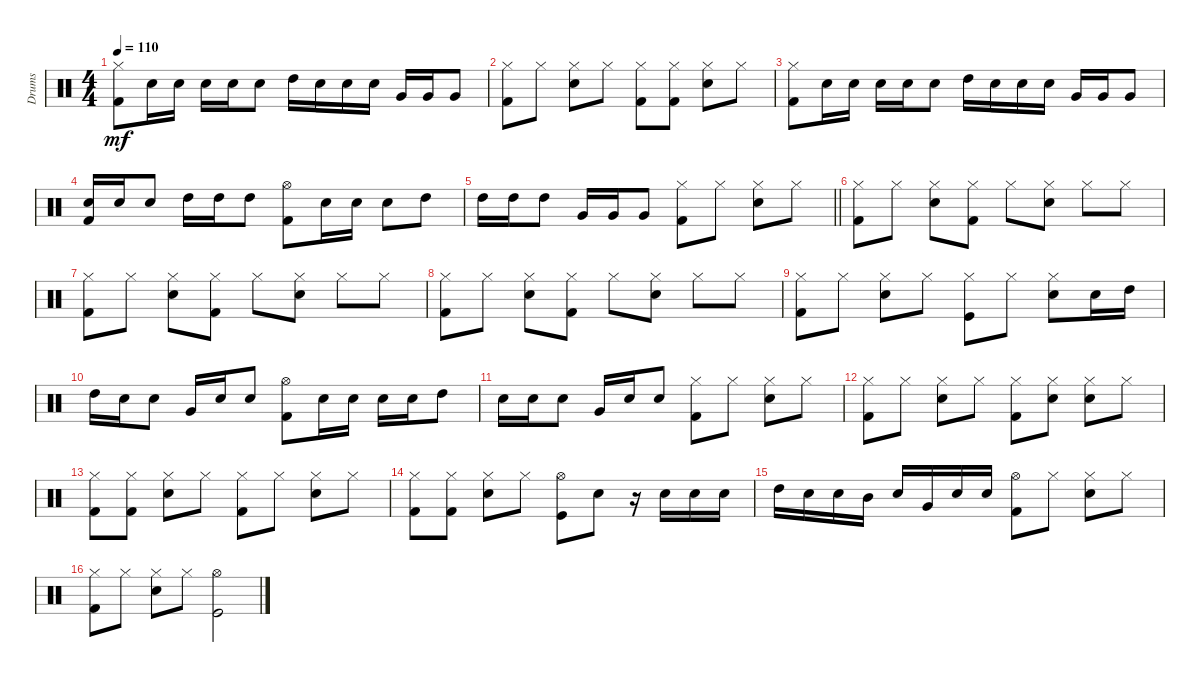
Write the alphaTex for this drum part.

\track ("Drums" "Drums") {instrument percussion}
\staff {score}
\articulation defaults
\ts (4 4)
\tempo 110
\clef neutral
\ks c
("Hi-Hat (closed)" "Kick (hit) 2").8{dy mf} "Snare (hit) 2".16 "Snare (hit) 2".16 "Snare (hit) 2".16 "Snare (hit) 2".16 "Snare (hit) 2".8 "High Tom (hit)".16 "Snare (hit) 2".16 "Snare (hit) 2".16 "Snare (hit) 2".16 "Very Low Tom (hit)".16 "Very Low Tom (hit)".16 "Very Low Tom (hit)".8 |
("Hi-Hat (closed)" "Kick (hit) 2").8 "Hi-Hat (closed)".8 ("Hi-Hat (closed)" "Snare (hit) 2").8 "Hi-Hat (closed)".8 ("Hi-Hat (closed)" "Kick (hit) 2").8 ("Hi-Hat (closed)" "Kick (hit) 2").8 ("Hi-Hat (closed)" "Snare (hit) 2").8 "Hi-Hat (closed)".8 |
("Hi-Hat (closed)" "Kick (hit) 2").8 "Snare (hit) 2".16 "Snare (hit) 2".16 "Snare (hit) 2".16 "Snare (hit) 2".16 "Snare (hit) 2".8 "High Tom (hit)".16 "Snare (hit) 2".16 "Snare (hit) 2".16 "Snare (hit) 2".16 "Very Low Tom (hit)".16 "Very Low Tom (hit)".16 "Very Low Tom (hit)".8 |
("Snare (hit) 2" "Kick (hit) 2").16 "Snare (hit) 2".16 "Snare (hit) 2".8 "High Tom (hit)".16 "High Tom (hit)".16 "High Tom (hit)".8 ("Hi-Hat (open)" "Kick (hit) 2").8 "Snare (hit) 2".16 "Snare (hit) 2".16 "Snare (hit) 2".8 "High Tom (hit)".8 |
\barLineRight lightlight "High Tom (hit)".16 "High Tom (hit)".16 "High Tom (hit)".8 "Very Low Tom (hit)".16 "Very Low Tom (hit)".16 "Very Low Tom (hit)".8
("Hi-Hat (closed)" "Kick (hit) 2").8 "Hi-Hat (closed)".8 ("Hi-Hat (closed)" "Snare (hit) 2").8 "Hi-Hat (closed)".8 |
("Hi-Hat (closed)" "Kick (hit) 2").8 "Hi-Hat (closed)".8 ("Hi-Hat (closed)" "Snare (hit) 2").8 ("Hi-Hat (closed)" "Kick (hit) 2").8 "Hi-Hat (closed)".8 ("Hi-Hat (closed)" "Snare (hit) 2").8 "Hi-Hat (closed)".8 "Hi-Hat (closed)".8 |
("Hi-Hat (closed)" "Kick (hit) 2").8 "Hi-Hat (closed)".8 ("Hi-Hat (closed)" "Snare (hit) 2").8 ("Hi-Hat (closed)" "Kick (hit) 2").8 "Hi-Hat (closed)".8 ("Hi-Hat (closed)" "Snare (hit) 2").8 "Hi-Hat (closed)".8 "Hi-Hat (closed)".8 |
("Hi-Hat (closed)" "Kick (hit) 2").8 "Hi-Hat (closed)".8 ("Hi-Hat (closed)" "Snare (hit) 2").8 ("Hi-Hat (closed)" "Kick (hit) 2").8 "Hi-Hat (closed)".8 ("Hi-Hat (closed)" "Snare (hit) 2").8 "Hi-Hat (closed)".8 "Hi-Hat (closed)".8 |
("Hi-Hat (closed)" "Kick (hit) 2").8 "Hi-Hat (closed)".8 ("Hi-Hat (closed)" "Snare (hit) 2").8 "Hi-Hat (closed)".8 ("Hi-Hat (closed)" "Kick (hit)").8 "Hi-Hat (closed)".8 ("Hi-Hat (closed)" "Snare (hit) 2").8 "Snare (hit) 2".16 "High Tom (hit)".16 |
"High Tom (hit)".16 "Snare (hit) 2".16 "Snare (hit) 2".8 "Very Low Tom (hit)".16 "Snare (hit) 2".16 "Snare (hit) 2".8 ("Kick (hit) 2" "Hi-Hat (open)").8 "Snare (hit) 2".16 "Snare (hit) 2".16 "Snare (hit) 2".16 "Snare (hit) 2".16 "High Tom (hit)".8 |
"Snare (hit) 2".16 "Snare (hit) 2".16 "Snare (hit) 2".8 "Very Low Tom (hit)".16 "Snare (hit) 2".16 "Snare (hit) 2".8 ("Hi-Hat (closed)" "Kick (hit) 2").8 "Hi-Hat (closed)".8 ("Hi-Hat (closed)" "Snare (hit) 2").8 "Hi-Hat (closed)".8 |
("Hi-Hat (closed)" "Kick (hit) 2").8 "Hi-Hat (closed)".8 ("Hi-Hat (closed)" "Snare (hit) 2").8 "Hi-Hat (closed)".8 ("Hi-Hat (closed)" "Kick (hit) 2").8 ("Hi-Hat (closed)" "Snare (hit) 2").8 ("Hi-Hat (closed)" "Snare (hit) 2").8 "Hi-Hat (closed)".8 |
("Hi-Hat (closed)" "Kick (hit) 2").8 ("Hi-Hat (closed)" "Kick (hit) 2").8 ("Hi-Hat (closed)" "Snare (hit) 2").8 "Hi-Hat (closed)".8 ("Hi-Hat (closed)" "Kick (hit) 2").8 "Hi-Hat (closed)".8 ("Hi-Hat (closed)" "Snare (hit) 2").8 "Hi-Hat (closed)".8 |
("Hi-Hat (closed)" "Kick (hit) 2").8 ("Hi-Hat (closed)" "Kick (hit) 2").8 ("Hi-Hat (closed)" "Snare (hit) 2").8 "Hi-Hat (closed)".8 ("Hi-Hat (open)" "Kick (hit)").8 "Snare (hit) 2".8 r.16 "Snare (hit) 2".16 "Snare (hit) 2".16 "Snare (hit) 2".16 |
"High Tom (hit)".16 "Snare (hit) 2".16 "Snare (hit) 2".16 "Mid Tom (hit)".16 "Snare (hit) 2".16 "Very Low Tom (hit)".16 "Snare (hit) 2".16 "Snare (hit) 2".16 ("Hi-Hat (open)" "Kick (hit) 2").8 "Hi-Hat (closed)".8 ("Hi-Hat (closed)" "Snare (hit) 2").8 "Hi-Hat (closed)".8 |
("Hi-Hat (closed)" "Kick (hit) 2").8 "Hi-Hat (closed)".8 ("Hi-Hat (closed)" "Snare (hit) 2").8 "Hi-Hat (closed)".8 ("Hi-Hat (open)" "Kick (hit)").2
